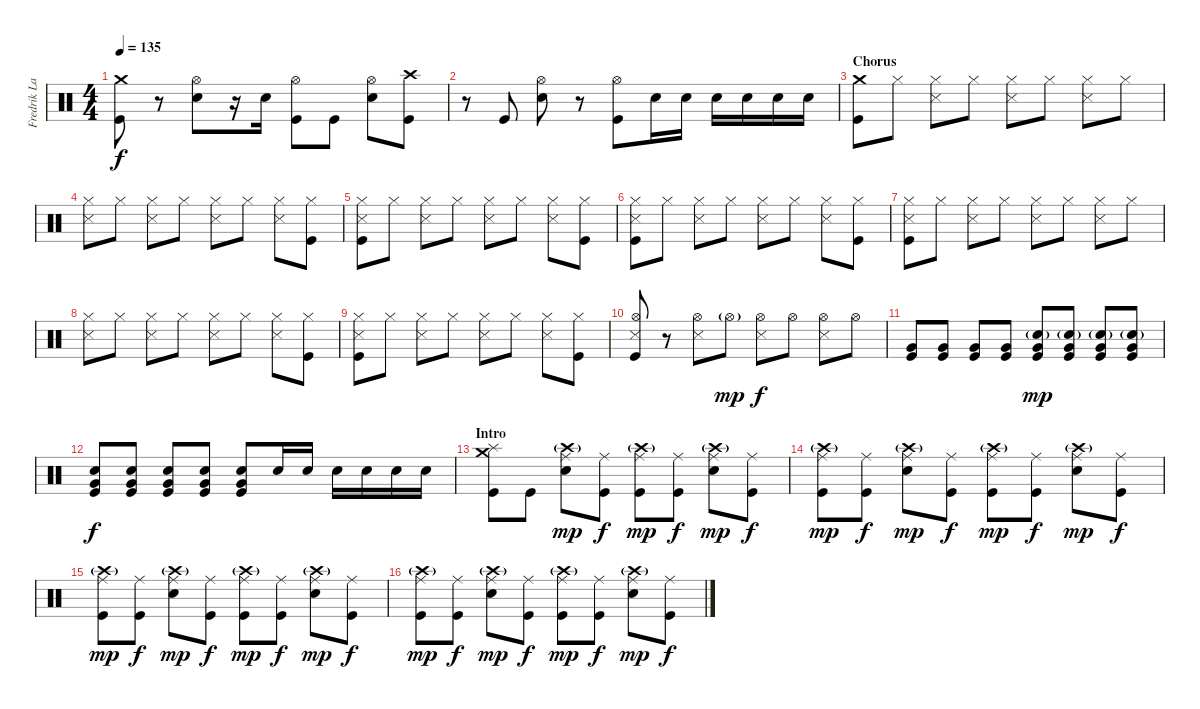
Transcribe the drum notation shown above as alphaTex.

\track ("Fredrik Larzon" "Fredrik La") {instrument percussion}
\staff {score}
\articulation defaults
\ts (4 4)
\tempo 135
\clef neutral
\ks c
("Crash medium (hit)" "Kick (hit)").8{dy f} r.8 ("Hi-Hat (open)" "Electric Snare (hit)").8 r.16 "Electric Snare (hit)".16 ("Hi-Hat (open)" "Kick (hit)").8 "Kick (hit)".8 ("Hi-Hat (open)" "Electric Snare (hit)").8 ("Crash high (hit)" "Kick (hit)").8 |
r.8 "Kick (hit)".8 ("Hi-Hat (open)" "Electric Snare (hit)").8 r.8 ("Hi-Hat (open)" "Kick (hit)").8 "Electric Snare (hit)".16 "Electric Snare (hit)".16 "Electric Snare (hit)".16 "Electric Snare (hit)".16 "Electric Snare (hit)".16 "Electric Snare (hit)".16 |
\section ("" "Chorus")
("Crash medium (hit)" "Kick (hit)").8 "Hi-Hat (closed)".8 ("Hi-Hat (closed)" "Snare (side stick) 3").8 "Hi-Hat (closed)".8 ("Hi-Hat (closed)" "Snare (side stick) 3").8 "Hi-Hat (closed)".8 ("Hi-Hat (closed)" "Snare (side stick) 3").8 "Hi-Hat (closed)".8 |
("Hi-Hat (closed)" "Snare (side stick) 3").8 "Hi-Hat (closed)".8 ("Hi-Hat (closed)" "Snare (side stick) 3").8 "Hi-Hat (closed)".8 ("Hi-Hat (closed)" "Snare (side stick) 3").8 "Hi-Hat (closed)".8 ("Hi-Hat (closed)" "Snare (side stick) 3").8 ("Hi-Hat (closed)" "Kick (hit)").8 |
("Hi-Hat (closed)" "Snare (side stick) 3" "Kick (hit)").8 "Hi-Hat (closed)".8 ("Hi-Hat (closed)" "Snare (side stick) 3").8 "Hi-Hat (closed)".8 ("Hi-Hat (closed)" "Snare (side stick) 3").8 "Hi-Hat (closed)".8 ("Hi-Hat (closed)" "Snare (side stick) 3").8 ("Hi-Hat (closed)" "Kick (hit)").8 |
("Hi-Hat (closed)" "Snare (side stick) 3" "Kick (hit)").8 "Hi-Hat (closed)".8 ("Hi-Hat (closed)" "Snare (side stick) 3").8 "Hi-Hat (closed)".8 ("Hi-Hat (closed)" "Snare (side stick) 3").8 "Hi-Hat (closed)".8 ("Hi-Hat (closed)" "Snare (side stick) 3").8 ("Hi-Hat (closed)" "Kick (hit)").8 |
("Hi-Hat (closed)" "Snare (side stick) 3" "Kick (hit)").8 "Hi-Hat (closed)".8 ("Hi-Hat (closed)" "Snare (side stick) 3").8 "Hi-Hat (closed)".8 ("Hi-Hat (closed)" "Snare (side stick) 3").8 "Hi-Hat (closed)".8 ("Hi-Hat (closed)" "Snare (side stick) 3").8 "Hi-Hat (closed)".8 |
("Hi-Hat (closed)" "Snare (side stick) 3").8 "Hi-Hat (closed)".8 ("Hi-Hat (closed)" "Snare (side stick) 3").8 "Hi-Hat (closed)".8 ("Hi-Hat (closed)" "Snare (side stick) 3").8 "Hi-Hat (closed)".8 ("Hi-Hat (closed)" "Snare (side stick) 3").8 ("Hi-Hat (closed)" "Kick (hit)").8 |
("Hi-Hat (closed)" "Snare (side stick) 3" "Kick (hit)").8 "Hi-Hat (closed)".8 ("Hi-Hat (closed)" "Snare (side stick) 3").8 "Hi-Hat (closed)".8 ("Hi-Hat (closed)" "Snare (side stick) 3").8 "Hi-Hat (closed)".8 ("Hi-Hat (closed)" "Snare (side stick) 3").8 ("Hi-Hat (closed)" "Kick (hit)").8 |
("Hi-Hat (open)" "Snare (side stick) 3" "Kick (hit)").8 r.8 ("Hi-Hat (open)" "Snare (side stick) 3").8 "Hi-Hat (open)"{g}.8{dy mp} ("Hi-Hat (open)" "Snare (side stick) 3").8{dy f} "Hi-Hat (open)".8 ("Hi-Hat (open)" "Snare (side stick) 3").8 "Hi-Hat (open)".8 |
("Very Low Tom (hit)" "Kick (hit)").8 ("Very Low Tom (hit)" "Kick (hit)").8 ("Very Low Tom (hit)" "Kick (hit)").8 ("Very Low Tom (hit)" "Kick (hit)").8 ("Electric Snare (hit)"{g} "Very Low Tom (hit)" "Kick (hit)").8{dy mp} ("Electric Snare (hit)"{g} "Very Low Tom (hit)" "Kick (hit)").8 ("Electric Snare (hit)"{g} "Very Low Tom (hit)" "Kick (hit)").8 ("Electric Snare (hit)"{g} "Very Low Tom (hit)" "Kick (hit)").8 |
("Electric Snare (hit)" "Very Low Tom (hit)" "Kick (hit)").8{dy f} ("Electric Snare (hit)" "Very Low Tom (hit)" "Kick (hit)").8 ("Electric Snare (hit)" "Very Low Tom (hit)" "Kick (hit)").8 ("Electric Snare (hit)" "Very Low Tom (hit)" "Kick (hit)").8 ("Electric Snare (hit)" "Very Low Tom (hit)" "Kick (hit)").8 "Electric Snare (hit)".16 "Electric Snare (hit)".16 "Electric Snare (hit)".16 "Electric Snare (hit)".16 "Electric Snare (hit)".16 "Electric Snare (hit)".16 |
\section ("" "Intro")
("Splash (hit)" "Crash medium (hit)" "Kick (hit)").8 "Kick (hit)".8 ("Ride (middle)" "Crash high (hit)"{g} "Electric Snare (hit)").8{dy mp} ("Ride (middle)" "Kick (hit)").8{dy f} ("Ride (middle)" "Crash high (hit)"{g} "Kick (hit)").8{dy mp} ("Ride (middle)" "Kick (hit)").8{dy f} ("Ride (middle)" "Crash high (hit)"{g} "Electric Snare (hit)").8{dy mp} ("Ride (middle)" "Kick (hit)").8{dy f} |
("Ride (middle)" "Crash high (hit)"{g} "Kick (hit)").8{dy mp} ("Ride (middle)" "Kick (hit)").8{dy f} ("Ride (middle)" "Crash high (hit)"{g} "Electric Snare (hit)").8{dy mp} ("Ride (middle)" "Kick (hit)").8{dy f} ("Ride (middle)" "Crash high (hit)"{g} "Kick (hit)").8{dy mp} ("Ride (middle)" "Kick (hit)").8{dy f} ("Ride (middle)" "Crash high (hit)"{g} "Electric Snare (hit)").8{dy mp} ("Ride (middle)" "Kick (hit)").8{dy f} |
("Ride (middle)" "Crash high (hit)"{g} "Kick (hit)").8{dy mp} ("Ride (middle)" "Kick (hit)").8{dy f} ("Ride (middle)" "Crash high (hit)"{g} "Electric Snare (hit)").8{dy mp} ("Ride (middle)" "Kick (hit)").8{dy f} ("Ride (middle)" "Crash high (hit)"{g} "Kick (hit)").8{dy mp} ("Ride (middle)" "Kick (hit)").8{dy f} ("Ride (middle)" "Crash high (hit)"{g} "Electric Snare (hit)").8{dy mp} ("Ride (middle)" "Kick (hit)").8{dy f} |
("Ride (middle)" "Crash high (hit)"{g} "Kick (hit)").8{dy mp} ("Ride (middle)" "Kick (hit)").8{dy f} ("Ride (middle)" "Crash high (hit)"{g} "Electric Snare (hit)").8{dy mp} ("Ride (middle)" "Kick (hit)").8{dy f} ("Ride (middle)" "Crash high (hit)"{g} "Kick (hit)").8{dy mp} ("Ride (middle)" "Kick (hit)").8{dy f} ("Ride (middle)" "Crash high (hit)"{g} "Electric Snare (hit)").8{dy mp} ("Ride (middle)" "Kick (hit)").8{dy f}
